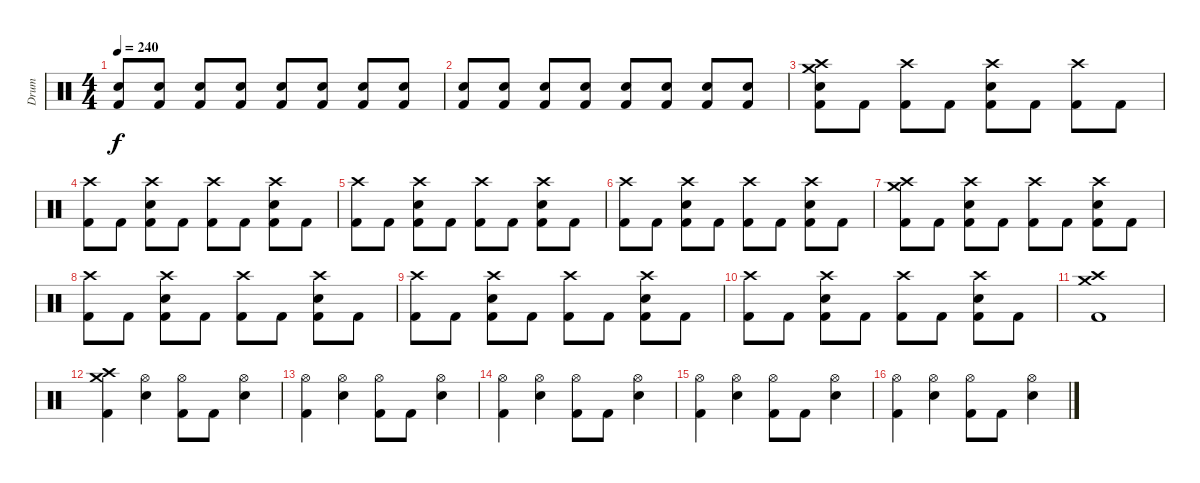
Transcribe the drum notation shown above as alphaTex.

\track ("Drum" "Drum") {instrument percussion}
\staff {score}
\articulation defaults
\ts (4 4)
\tempo 240
\clef neutral
\ks c
("Kick (hit) 2" "Electric Snare (hit)").8{dy f} ("Kick (hit) 2" "Electric Snare (hit)").8 ("Kick (hit) 2" "Electric Snare (hit)").8 ("Kick (hit) 2" "Electric Snare (hit)").8 ("Kick (hit) 2" "Electric Snare (hit)").8 ("Kick (hit) 2" "Electric Snare (hit)").8 ("Kick (hit) 2" "Electric Snare (hit)").8 ("Kick (hit) 2" "Electric Snare (hit)").8 |
("Kick (hit) 2" "Electric Snare (hit)").8 ("Kick (hit) 2" "Electric Snare (hit)").8 ("Kick (hit) 2" "Electric Snare (hit)").8 ("Kick (hit) 2" "Electric Snare (hit)").8 ("Kick (hit) 2" "Electric Snare (hit)").8 ("Kick (hit) 2" "Electric Snare (hit)").8 ("Kick (hit) 2" "Electric Snare (hit)").8 ("Kick (hit) 2" "Electric Snare (hit)").8 |
("Crash high (hit)" "Kick (hit) 2" "Crash medium (hit)" "Electric Snare (hit)").8 "Kick (hit) 2".8 ("Crash high (hit)" "Kick (hit) 2").8 "Kick (hit) 2".8 ("Crash high (hit)" "Kick (hit) 2" "Electric Snare (hit)").8 "Kick (hit) 2".8 ("Crash high (hit)" "Kick (hit) 2").8 "Kick (hit) 2".8 |
("Crash high (hit)" "Kick (hit) 2").8 "Kick (hit) 2".8 ("Crash high (hit)" "Kick (hit) 2" "Electric Snare (hit)").8 "Kick (hit) 2".8 ("Crash high (hit)" "Kick (hit) 2").8 "Kick (hit) 2".8 ("Crash high (hit)" "Kick (hit) 2" "Electric Snare (hit)").8 "Kick (hit) 2".8 |
("Crash high (hit)" "Kick (hit) 2").8 "Kick (hit) 2".8 ("Crash high (hit)" "Kick (hit) 2" "Electric Snare (hit)").8 "Kick (hit) 2".8 ("Crash high (hit)" "Kick (hit) 2").8 "Kick (hit) 2".8 ("Crash high (hit)" "Kick (hit) 2" "Electric Snare (hit)").8 "Kick (hit) 2".8 |
("Crash high (hit)" "Kick (hit) 2").8 "Kick (hit) 2".8 ("Crash high (hit)" "Kick (hit) 2" "Electric Snare (hit)").8 "Kick (hit) 2".8 ("Crash high (hit)" "Kick (hit) 2").8 "Kick (hit) 2".8 ("Crash high (hit)" "Kick (hit) 2" "Electric Snare (hit)").8 "Kick (hit) 2".8 |
("Crash high (hit)" "Kick (hit) 2" "Crash medium (hit)").8 "Kick (hit) 2".8 ("Crash high (hit)" "Kick (hit) 2" "Electric Snare (hit)").8 "Kick (hit) 2".8 ("Crash high (hit)" "Kick (hit) 2").8 "Kick (hit) 2".8 ("Crash high (hit)" "Kick (hit) 2" "Electric Snare (hit)").8 "Kick (hit) 2".8 |
("Crash high (hit)" "Kick (hit) 2").8 "Kick (hit) 2".8 ("Crash high (hit)" "Kick (hit) 2" "Electric Snare (hit)").8 "Kick (hit) 2".8 ("Crash high (hit)" "Kick (hit) 2").8 "Kick (hit) 2".8 ("Crash high (hit)" "Kick (hit) 2" "Electric Snare (hit)").8 "Kick (hit) 2".8 |
("Crash high (hit)" "Kick (hit) 2").8 "Kick (hit) 2".8 ("Crash high (hit)" "Kick (hit) 2" "Electric Snare (hit)").8 "Kick (hit) 2".8 ("Crash high (hit)" "Kick (hit) 2").8 "Kick (hit) 2".8 ("Crash high (hit)" "Kick (hit) 2" "Electric Snare (hit)").8 "Kick (hit) 2".8 |
("Crash high (hit)" "Kick (hit) 2").8 "Kick (hit) 2".8 ("Crash high (hit)" "Kick (hit) 2" "Electric Snare (hit)").8 "Kick (hit) 2".8 ("Crash high (hit)" "Kick (hit) 2").8 "Kick (hit) 2".8 ("Crash high (hit)" "Kick (hit) 2" "Electric Snare (hit)").8 "Kick (hit) 2".8 |
("Crash high (hit)" "Kick (hit) 2" "Crash medium (hit)").1 |
("Crash high (hit)" "Kick (hit) 2" "Crash medium (hit)").4 ("Hi-Hat (open)" "Electric Snare (hit)").4 ("Hi-Hat (open)" "Kick (hit) 2").8 "Kick (hit) 2".8 ("Hi-Hat (open)" "Electric Snare (hit)").4 |
("Hi-Hat (open)" "Kick (hit) 2").4 ("Hi-Hat (open)" "Electric Snare (hit)").4 ("Hi-Hat (open)" "Kick (hit) 2").8 "Kick (hit) 2".8 ("Hi-Hat (open)" "Electric Snare (hit)").4 |
("Hi-Hat (open)" "Kick (hit) 2").4 ("Hi-Hat (open)" "Electric Snare (hit)").4 ("Hi-Hat (open)" "Kick (hit) 2").8 "Kick (hit) 2".8 ("Hi-Hat (open)" "Electric Snare (hit)").4 |
("Hi-Hat (open)" "Kick (hit) 2").4 ("Hi-Hat (open)" "Electric Snare (hit)").4 ("Hi-Hat (open)" "Kick (hit) 2").8 "Kick (hit) 2".8 ("Hi-Hat (open)" "Electric Snare (hit)").4 |
("Hi-Hat (open)" "Kick (hit) 2").4 ("Hi-Hat (open)" "Electric Snare (hit)").4 ("Hi-Hat (open)" "Kick (hit) 2").8 "Kick (hit) 2".8 ("Hi-Hat (open)" "Electric Snare (hit)").4
